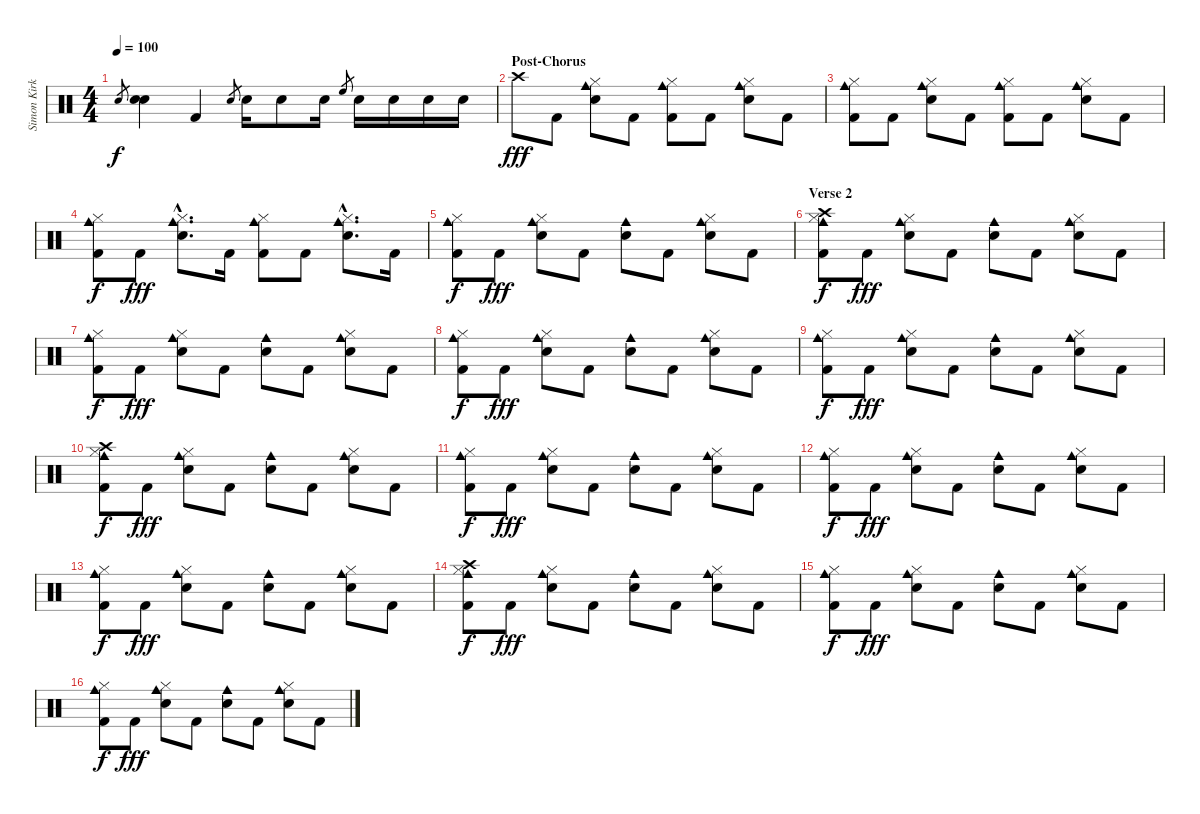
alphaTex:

\track ("Simon Kirke" "Simon Kirk") {instrument percussion}
\staff {score}
\articulation defaults
\ts (4 4)
\tempo 100
\clef neutral
\ks c "Electric Snare (hit)".8{gr dy f}
("Electric Snare (hit)" "Electric Snare (hit)").4 "Kick (hit) 2".4 "Electric Snare (hit)".8{gr} "Electric Snare (hit)".16 "Electric Snare (hit)".8 "Electric Snare (hit)".16 "High Floor Tom (hit)".8{gr} "Electric Snare (hit)".16 "Electric Snare (hit)".16 "Electric Snare (hit)".16 "Electric Snare (hit)".16 |
\section ("" "Post-Chorus")
"Crash high (hit)".8{dy fff} "Kick (hit) 2".8 ("Cowbell medium (hit)" "Electric Snare (hit)" "Hi-Hat (closed)").8 "Kick (hit) 2".8 ("Kick (hit) 2" "Cowbell medium (hit)" "Hi-Hat (closed)").8 "Kick (hit) 2".8 ("Cowbell medium (hit)" "Electric Snare (hit)" "Hi-Hat (closed)").8 "Kick (hit) 2".8 |
("Kick (hit) 2" "Cowbell medium (hit)" "Hi-Hat (closed)").8 "Kick (hit) 2".8 ("Cowbell medium (hit)" "Electric Snare (hit)" "Hi-Hat (closed)").8 "Kick (hit) 2".8 ("Kick (hit) 2" "Cowbell medium (hit)" "Hi-Hat (closed)").8 "Kick (hit) 2".8 ("Cowbell medium (hit)" "Electric Snare (hit)" "Hi-Hat (closed)").8 "Kick (hit) 2".8 |
("Kick (hit) 2" "Cowbell medium (hit)" "Hi-Hat (closed)").8{dy f} "Kick (hit) 2".8{dy fff} ("Cowbell medium (hit)"{hac} "Electric Snare (hit)"{hac} "Hi-Hat (closed)"{hac}).8{d} "Kick (hit) 2".16 ("Kick (hit) 2" "Cowbell medium (hit)" "Hi-Hat (closed)").8 "Kick (hit) 2".8 ("Cowbell medium (hit)"{hac} "Electric Snare (hit)"{hac} "Hi-Hat (closed)"{hac}).8{d} "Kick (hit) 2".16 |
("Kick (hit) 2" "Cowbell medium (hit)" "Hi-Hat (closed)").8{dy f} "Kick (hit) 2".8{dy fff} ("Cowbell medium (hit)" "Electric Snare (hit)" "Hi-Hat (closed)").8 "Kick (hit) 2".8 ("Cowbell medium (hit)" "Electric Snare (hit)").8 "Kick (hit) 2".8 ("Cowbell medium (hit)" "Electric Snare (hit)" "Hi-Hat (closed)").8 "Kick (hit) 2".8 |
\section ("" "Verse 2")
("Kick (hit) 2" "Cowbell medium (hit)" "Hi-Hat (closed)" "Crash high (hit)").8{dy f} "Kick (hit) 2".8{dy fff} ("Cowbell medium (hit)" "Electric Snare (hit)" "Hi-Hat (closed)").8 "Kick (hit) 2".8 ("Cowbell medium (hit)" "Electric Snare (hit)").8 "Kick (hit) 2".8 ("Cowbell medium (hit)" "Electric Snare (hit)" "Hi-Hat (closed)").8 "Kick (hit) 2".8 |
("Kick (hit) 2" "Cowbell medium (hit)" "Hi-Hat (closed)").8{dy f} "Kick (hit) 2".8{dy fff} ("Cowbell medium (hit)" "Electric Snare (hit)" "Hi-Hat (closed)").8 "Kick (hit) 2".8 ("Cowbell medium (hit)" "Electric Snare (hit)").8 "Kick (hit) 2".8 ("Cowbell medium (hit)" "Electric Snare (hit)" "Hi-Hat (closed)").8 "Kick (hit) 2".8 |
("Kick (hit) 2" "Cowbell medium (hit)" "Hi-Hat (closed)").8{dy f} "Kick (hit) 2".8{dy fff} ("Cowbell medium (hit)" "Electric Snare (hit)" "Hi-Hat (closed)").8 "Kick (hit) 2".8 ("Cowbell medium (hit)" "Electric Snare (hit)").8 "Kick (hit) 2".8 ("Cowbell medium (hit)" "Electric Snare (hit)" "Hi-Hat (closed)").8 "Kick (hit) 2".8 |
("Kick (hit) 2" "Cowbell medium (hit)" "Hi-Hat (closed)").8{dy f} "Kick (hit) 2".8{dy fff} ("Cowbell medium (hit)" "Electric Snare (hit)" "Hi-Hat (closed)").8 "Kick (hit) 2".8 ("Cowbell medium (hit)" "Electric Snare (hit)").8 "Kick (hit) 2".8 ("Cowbell medium (hit)" "Electric Snare (hit)" "Hi-Hat (closed)").8 "Kick (hit) 2".8 |
("Kick (hit) 2" "Cowbell medium (hit)" "Hi-Hat (closed)" "Crash high (hit)").8{dy f} "Kick (hit) 2".8{dy fff} ("Cowbell medium (hit)" "Electric Snare (hit)" "Hi-Hat (closed)").8 "Kick (hit) 2".8 ("Cowbell medium (hit)" "Electric Snare (hit)").8 "Kick (hit) 2".8 ("Cowbell medium (hit)" "Electric Snare (hit)" "Hi-Hat (closed)").8 "Kick (hit) 2".8 |
("Kick (hit) 2" "Cowbell medium (hit)" "Hi-Hat (closed)").8{dy f} "Kick (hit) 2".8{dy fff} ("Cowbell medium (hit)" "Electric Snare (hit)" "Hi-Hat (closed)").8 "Kick (hit) 2".8 ("Cowbell medium (hit)" "Electric Snare (hit)").8 "Kick (hit) 2".8 ("Cowbell medium (hit)" "Electric Snare (hit)" "Hi-Hat (closed)").8 "Kick (hit) 2".8 |
("Kick (hit) 2" "Cowbell medium (hit)" "Hi-Hat (closed)").8{dy f} "Kick (hit) 2".8{dy fff} ("Cowbell medium (hit)" "Electric Snare (hit)" "Hi-Hat (closed)").8 "Kick (hit) 2".8 ("Cowbell medium (hit)" "Electric Snare (hit)").8 "Kick (hit) 2".8 ("Cowbell medium (hit)" "Electric Snare (hit)" "Hi-Hat (closed)").8 "Kick (hit) 2".8 |
("Kick (hit) 2" "Cowbell medium (hit)" "Hi-Hat (closed)").8{dy f} "Kick (hit) 2".8{dy fff} ("Cowbell medium (hit)" "Electric Snare (hit)" "Hi-Hat (closed)").8 "Kick (hit) 2".8 ("Cowbell medium (hit)" "Electric Snare (hit)").8 "Kick (hit) 2".8 ("Cowbell medium (hit)" "Electric Snare (hit)" "Hi-Hat (closed)").8 "Kick (hit) 2".8 |
("Kick (hit) 2" "Cowbell medium (hit)" "Hi-Hat (closed)" "Crash high (hit)").8{dy f} "Kick (hit) 2".8{dy fff} ("Cowbell medium (hit)" "Electric Snare (hit)" "Hi-Hat (closed)").8 "Kick (hit) 2".8 ("Cowbell medium (hit)" "Electric Snare (hit)").8 "Kick (hit) 2".8 ("Cowbell medium (hit)" "Electric Snare (hit)" "Hi-Hat (closed)").8 "Kick (hit) 2".8 |
("Kick (hit) 2" "Cowbell medium (hit)" "Hi-Hat (closed)").8{dy f} "Kick (hit) 2".8{dy fff} ("Cowbell medium (hit)" "Electric Snare (hit)" "Hi-Hat (closed)").8 "Kick (hit) 2".8 ("Cowbell medium (hit)" "Electric Snare (hit)").8 "Kick (hit) 2".8 ("Cowbell medium (hit)" "Electric Snare (hit)" "Hi-Hat (closed)").8 "Kick (hit) 2".8 |
("Kick (hit) 2" "Cowbell medium (hit)" "Hi-Hat (closed)").8{dy f} "Kick (hit) 2".8{dy fff} ("Cowbell medium (hit)" "Electric Snare (hit)" "Hi-Hat (closed)").8 "Kick (hit) 2".8 ("Cowbell medium (hit)" "Electric Snare (hit)").8 "Kick (hit) 2".8 ("Cowbell medium (hit)" "Electric Snare (hit)" "Hi-Hat (closed)").8 "Kick (hit) 2".8
